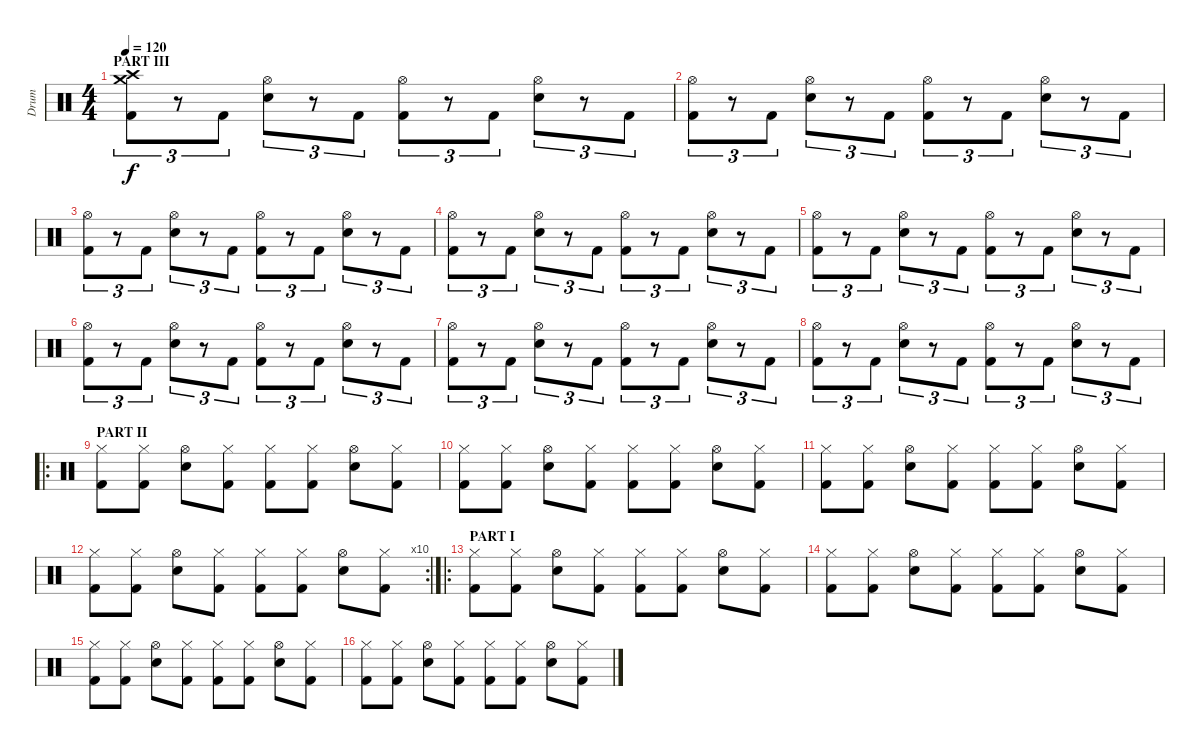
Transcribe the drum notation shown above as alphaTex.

\track ("Drum" "Drum") {instrument percussion}
\staff {score}
\articulation defaults
\ts (4 4)
\section ("" "PART III")
\tempo 120
\clef neutral
\ks c
("Crash medium (hit)" "Crash high (hit)" "Kick (hit) 2").8{tu (3 2) dy f} r.8{tu (3 2)} "Kick (hit) 2".8{tu (3 2)} ("Hi-Hat (open)" "Snare (hit) 2").8{tu (3 2)} r.8{tu (3 2)} "Kick (hit) 2".8{tu (3 2)} ("Hi-Hat (open)" "Kick (hit) 2").8{tu (3 2)} r.8{tu (3 2)} "Kick (hit) 2".8{tu (3 2)} ("Hi-Hat (open)" "Snare (hit) 2").8{tu (3 2)} r.8{tu (3 2)} "Kick (hit) 2".8{tu (3 2)} |
("Hi-Hat (open)" "Kick (hit) 2").8{tu (3 2)} r.8{tu (3 2)} "Kick (hit) 2".8{tu (3 2)} ("Hi-Hat (open)" "Snare (hit) 2").8{tu (3 2)} r.8{tu (3 2)} "Kick (hit) 2".8{tu (3 2)} ("Hi-Hat (open)" "Kick (hit) 2").8{tu (3 2)} r.8{tu (3 2)} "Kick (hit) 2".8{tu (3 2)} ("Hi-Hat (open)" "Snare (hit) 2").8{tu (3 2)} r.8{tu (3 2)} "Kick (hit) 2".8{tu (3 2)} |
("Hi-Hat (open)" "Kick (hit) 2").8{tu (3 2)} r.8{tu (3 2)} "Kick (hit) 2".8{tu (3 2)} ("Hi-Hat (open)" "Snare (hit) 2").8{tu (3 2)} r.8{tu (3 2)} "Kick (hit) 2".8{tu (3 2)} ("Hi-Hat (open)" "Kick (hit) 2").8{tu (3 2)} r.8{tu (3 2)} "Kick (hit) 2".8{tu (3 2)} ("Hi-Hat (open)" "Snare (hit) 2").8{tu (3 2)} r.8{tu (3 2)} "Kick (hit) 2".8{tu (3 2)} |
("Hi-Hat (open)" "Kick (hit) 2").8{tu (3 2)} r.8{tu (3 2)} "Kick (hit) 2".8{tu (3 2)} ("Hi-Hat (open)" "Snare (hit) 2").8{tu (3 2)} r.8{tu (3 2)} "Kick (hit) 2".8{tu (3 2)} ("Hi-Hat (open)" "Kick (hit) 2").8{tu (3 2)} r.8{tu (3 2)} "Kick (hit) 2".8{tu (3 2)} ("Hi-Hat (open)" "Snare (hit) 2").8{tu (3 2)} r.8{tu (3 2)} "Kick (hit) 2".8{tu (3 2)} |
("Hi-Hat (open)" "Kick (hit) 2").8{tu (3 2)} r.8{tu (3 2)} "Kick (hit) 2".8{tu (3 2)} ("Hi-Hat (open)" "Snare (hit) 2").8{tu (3 2)} r.8{tu (3 2)} "Kick (hit) 2".8{tu (3 2)} ("Hi-Hat (open)" "Kick (hit) 2").8{tu (3 2)} r.8{tu (3 2)} "Kick (hit) 2".8{tu (3 2)} ("Hi-Hat (open)" "Snare (hit) 2").8{tu (3 2)} r.8{tu (3 2)} "Kick (hit) 2".8{tu (3 2)} |
("Hi-Hat (open)" "Kick (hit) 2").8{tu (3 2)} r.8{tu (3 2)} "Kick (hit) 2".8{tu (3 2)} ("Hi-Hat (open)" "Snare (hit) 2").8{tu (3 2)} r.8{tu (3 2)} "Kick (hit) 2".8{tu (3 2)} ("Hi-Hat (open)" "Kick (hit) 2").8{tu (3 2)} r.8{tu (3 2)} "Kick (hit) 2".8{tu (3 2)} ("Hi-Hat (open)" "Snare (hit) 2").8{tu (3 2)} r.8{tu (3 2)} "Kick (hit) 2".8{tu (3 2)} |
("Hi-Hat (open)" "Kick (hit) 2").8{tu (3 2)} r.8{tu (3 2)} "Kick (hit) 2".8{tu (3 2)} ("Hi-Hat (open)" "Snare (hit) 2").8{tu (3 2)} r.8{tu (3 2)} "Kick (hit) 2".8{tu (3 2)} ("Hi-Hat (open)" "Kick (hit) 2").8{tu (3 2)} r.8{tu (3 2)} "Kick (hit) 2".8{tu (3 2)} ("Hi-Hat (open)" "Snare (hit) 2").8{tu (3 2)} r.8{tu (3 2)} "Kick (hit) 2".8{tu (3 2)} |
("Hi-Hat (open)" "Kick (hit) 2").8{tu (3 2)} r.8{tu (3 2)} "Kick (hit) 2".8{tu (3 2)} ("Hi-Hat (open)" "Snare (hit) 2").8{tu (3 2)} r.8{tu (3 2)} "Kick (hit) 2".8{tu (3 2)} ("Hi-Hat (open)" "Kick (hit) 2").8{tu (3 2)} r.8{tu (3 2)} "Kick (hit) 2".8{tu (3 2)} ("Hi-Hat (open)" "Snare (hit) 2").8{tu (3 2)} r.8{tu (3 2)} "Kick (hit) 2".8{tu (3 2)} |
\ro
\section ("" "PART II")
("Hi-Hat (closed)" "Kick (hit) 2").8 ("Hi-Hat (closed)" "Kick (hit) 2").8 ("Hi-Hat (open)" "Snare (hit) 2").8 ("Hi-Hat (closed)" "Kick (hit) 2").8 ("Hi-Hat (closed)" "Kick (hit) 2").8 ("Hi-Hat (closed)" "Kick (hit) 2").8 ("Hi-Hat (open)" "Snare (hit) 2").8 ("Hi-Hat (closed)" "Kick (hit) 2").8 |
("Hi-Hat (closed)" "Kick (hit) 2").8 ("Hi-Hat (closed)" "Kick (hit) 2").8 ("Hi-Hat (open)" "Snare (hit) 2").8 ("Hi-Hat (closed)" "Kick (hit) 2").8 ("Hi-Hat (closed)" "Kick (hit) 2").8 ("Hi-Hat (closed)" "Kick (hit) 2").8 ("Hi-Hat (open)" "Snare (hit) 2").8 ("Hi-Hat (closed)" "Kick (hit) 2").8 |
("Hi-Hat (closed)" "Kick (hit) 2").8 ("Hi-Hat (closed)" "Kick (hit) 2").8 ("Hi-Hat (open)" "Snare (hit) 2").8 ("Hi-Hat (closed)" "Kick (hit) 2").8 ("Hi-Hat (closed)" "Kick (hit) 2").8 ("Hi-Hat (closed)" "Kick (hit) 2").8 ("Hi-Hat (open)" "Snare (hit) 2").8 ("Hi-Hat (closed)" "Kick (hit) 2").8 |
\rc 10
("Hi-Hat (closed)" "Kick (hit) 2").8 ("Hi-Hat (closed)" "Kick (hit) 2").8 ("Hi-Hat (open)" "Snare (hit) 2").8 ("Hi-Hat (closed)" "Kick (hit) 2").8 ("Hi-Hat (closed)" "Kick (hit) 2").8 ("Hi-Hat (closed)" "Kick (hit) 2").8 ("Hi-Hat (open)" "Snare (hit) 2").8 ("Hi-Hat (closed)" "Kick (hit) 2").8 |
\ro
\section ("" "PART I")
("Hi-Hat (closed)" "Kick (hit) 2").8 ("Hi-Hat (closed)" "Kick (hit) 2").8 ("Hi-Hat (open)" "Snare (hit) 2").8 ("Hi-Hat (closed)" "Kick (hit) 2").8 ("Hi-Hat (closed)" "Kick (hit) 2").8 ("Hi-Hat (closed)" "Kick (hit) 2").8 ("Hi-Hat (open)" "Snare (hit) 2").8 ("Hi-Hat (closed)" "Kick (hit) 2").8 |
("Hi-Hat (closed)" "Kick (hit) 2").8 ("Hi-Hat (closed)" "Kick (hit) 2").8 ("Hi-Hat (open)" "Snare (hit) 2").8 ("Hi-Hat (closed)" "Kick (hit) 2").8 ("Hi-Hat (closed)" "Kick (hit) 2").8 ("Hi-Hat (closed)" "Kick (hit) 2").8 ("Hi-Hat (open)" "Snare (hit) 2").8 ("Hi-Hat (closed)" "Kick (hit) 2").8 |
("Hi-Hat (closed)" "Kick (hit) 2").8 ("Hi-Hat (closed)" "Kick (hit) 2").8 ("Hi-Hat (open)" "Snare (hit) 2").8 ("Hi-Hat (closed)" "Kick (hit) 2").8 ("Hi-Hat (closed)" "Kick (hit) 2").8 ("Hi-Hat (closed)" "Kick (hit) 2").8 ("Hi-Hat (open)" "Snare (hit) 2").8 ("Hi-Hat (closed)" "Kick (hit) 2").8 |
("Hi-Hat (closed)" "Kick (hit) 2").8 ("Hi-Hat (closed)" "Kick (hit) 2").8 ("Hi-Hat (open)" "Snare (hit) 2").8 ("Hi-Hat (closed)" "Kick (hit) 2").8 ("Hi-Hat (closed)" "Kick (hit) 2").8 ("Hi-Hat (closed)" "Kick (hit) 2").8 ("Hi-Hat (open)" "Snare (hit) 2").8 ("Hi-Hat (closed)" "Kick (hit) 2").8
